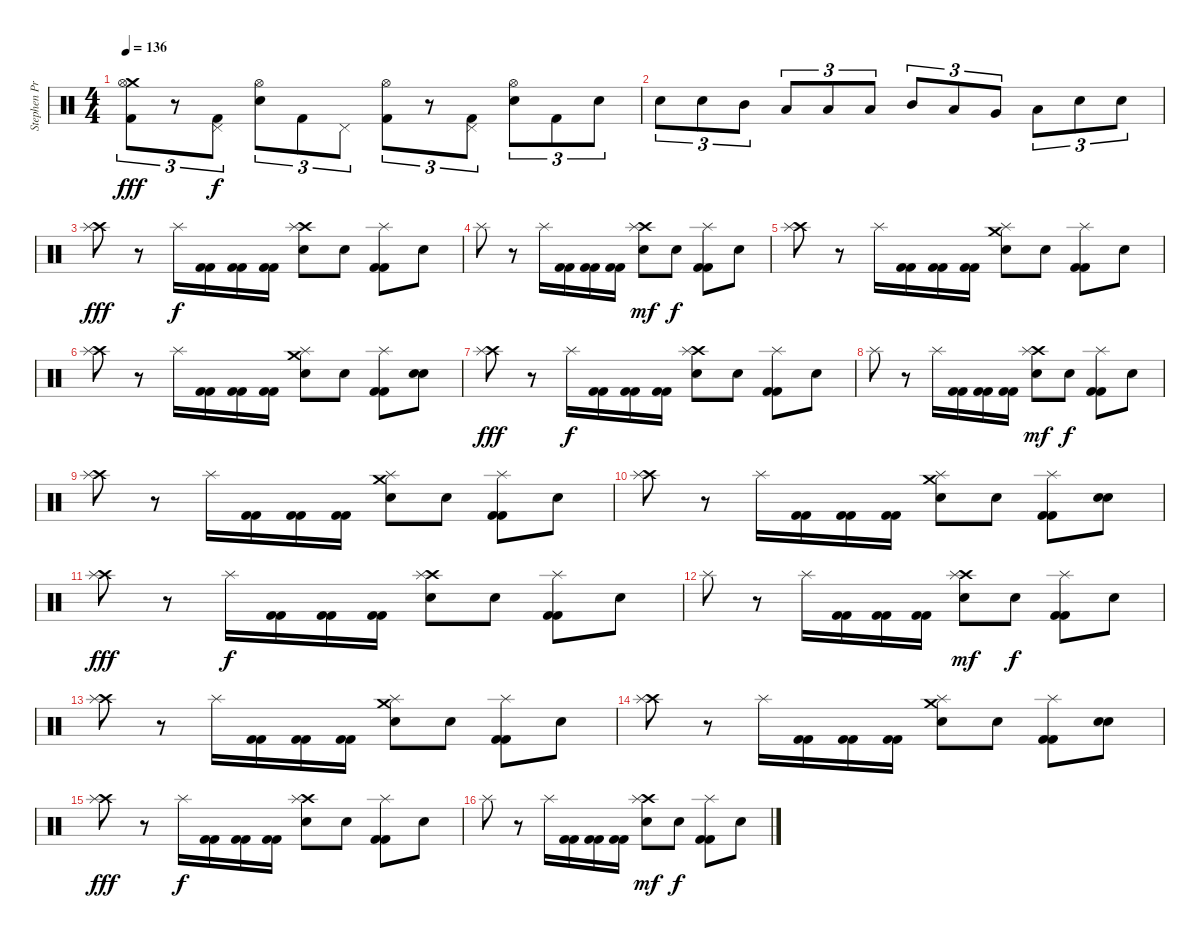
\track ("Stephen Priestly  (Drums)" "Stephen Pr") {instrument percussion}
\staff {score}
\articulation defaults
\ts (4 4)
\tempo 136
\clef neutral
\ks c
("Crash medium (hit)" "Hi-Hat (open)" "Kick (hit) 2").8{tu (3 2) dy fff} r.8{tu (3 2)} ("Pedal Hi-Hat (hit)" "Kick (hit) 2").8{tu (3 2) dy f} ("Hi-Hat (open)" "Electric Snare (hit)").8{tu (3 2)} "Kick (hit) 2".8{tu (3 2)} "Pedal Hi-Hat (hit)".8{tu (3 2)} ("Hi-Hat (open)" "Kick (hit) 2").8{tu (3 2)} r.8{tu (3 2)} ("Pedal Hi-Hat (hit)" "Kick (hit) 2").8{tu (3 2)} ("Hi-Hat (open)" "Electric Snare (hit)").8{tu (3 2)} "Kick (hit) 2".8{tu (3 2)} "Electric Snare (hit)".8{tu (3 2)} |
"Electric Snare (hit)".8{tu (3 2)} "Electric Snare (hit)".8{tu (3 2)} "Mid Tom (hit)".8{tu (3 2)} "Low Tom (hit)".8{tu (3 2)} "Low Tom (hit)".8{tu (3 2)} "Low Tom (hit)".8{tu (3 2)} "Mid Tom (hit)".8{tu (3 2)} "Low Tom (hit)".8{tu (3 2)} "Very Low Tom (hit)".8{tu (3 2)} "Low Floor Tom (hit)".8{tu (3 2)} "Electric Snare (hit)".8{tu (3 2)} "Electric Snare (hit)".8{tu (3 2)} |
("Crash high (hit)" "Splash (hit)").8{dy fff} r.8 "Splash (hit)".16{dy f} ("Kick (hit) 2" "Kick (hit) 2").16 ("Kick (hit) 2" "Kick (hit) 2").16 ("Kick (hit) 2" "Kick (hit) 2").16 ("Crash high (hit)" "Splash (hit)" "Electric Snare (hit)").8 "Snare (hit)".8 ("Splash (hit)" "Kick (hit) 2" "Kick (hit) 2").8 "Snare (hit)".8 |
"Splash (hit)".8 r.8 "Splash (hit)".16 ("Kick (hit) 2" "Kick (hit) 2").16 ("Kick (hit) 2" "Kick (hit) 2").16 ("Kick (hit) 2" "Kick (hit) 2").16 ("Crash high (hit)" "Splash (hit)" "Electric Snare (hit)").8{dy mf} "Snare (hit)".8{dy f} ("Splash (hit)" "Kick (hit) 2" "Kick (hit) 2").8 "Snare (hit)".8 |
("Crash high (hit)" "Splash (hit)").8 r.8 "Splash (hit)".16 ("Kick (hit) 2" "Kick (hit) 2").16 ("Kick (hit) 2" "Kick (hit) 2").16 ("Kick (hit) 2" "Kick (hit) 2").16 ("Crash medium (hit)" "Splash (hit)" "Electric Snare (hit)").8 "Snare (hit)".8 ("Splash (hit)" "Kick (hit) 2" "Kick (hit) 2").8 "Snare (hit)".8 |
("Crash high (hit)" "Splash (hit)").8 r.8 "Splash (hit)".16 ("Kick (hit) 2" "Kick (hit) 2").16 ("Kick (hit) 2" "Kick (hit) 2").16 ("Kick (hit) 2" "Kick (hit) 2").16 ("Crash medium (hit)" "Splash (hit)" "Electric Snare (hit)").8 "Snare (hit)".8 ("Splash (hit)" "Kick (hit) 2" "Kick (hit) 2").8 ("Snare (hit)" "Electric Snare (hit)").8 |
("Crash high (hit)" "Splash (hit)").8{dy fff} r.8 "Splash (hit)".16{dy f} ("Kick (hit) 2" "Kick (hit) 2").16 ("Kick (hit) 2" "Kick (hit) 2").16 ("Kick (hit) 2" "Kick (hit) 2").16 ("Crash high (hit)" "Splash (hit)" "Electric Snare (hit)").8 "Snare (hit)".8 ("Splash (hit)" "Kick (hit) 2" "Kick (hit) 2").8 "Snare (hit)".8 |
"Splash (hit)".8 r.8 "Splash (hit)".16 ("Kick (hit) 2" "Kick (hit) 2").16 ("Kick (hit) 2" "Kick (hit) 2").16 ("Kick (hit) 2" "Kick (hit) 2").16 ("Crash high (hit)" "Splash (hit)" "Electric Snare (hit)").8{dy mf} "Snare (hit)".8{dy f} ("Splash (hit)" "Kick (hit) 2" "Kick (hit) 2").8 "Snare (hit)".8 |
("Crash high (hit)" "Splash (hit)").8 r.8 "Splash (hit)".16 ("Kick (hit) 2" "Kick (hit) 2").16 ("Kick (hit) 2" "Kick (hit) 2").16 ("Kick (hit) 2" "Kick (hit) 2").16 ("Crash medium (hit)" "Splash (hit)" "Electric Snare (hit)").8 "Snare (hit)".8 ("Splash (hit)" "Kick (hit) 2" "Kick (hit) 2").8 "Snare (hit)".8 |
("Crash high (hit)" "Splash (hit)").8 r.8 "Splash (hit)".16 ("Kick (hit) 2" "Kick (hit) 2").16 ("Kick (hit) 2" "Kick (hit) 2").16 ("Kick (hit) 2" "Kick (hit) 2").16 ("Crash medium (hit)" "Splash (hit)" "Electric Snare (hit)").8 "Snare (hit)".8 ("Splash (hit)" "Kick (hit) 2" "Kick (hit) 2").8 ("Snare (hit)" "Electric Snare (hit)").8 |
("Crash high (hit)" "Splash (hit)").8{dy fff} r.8 "Splash (hit)".16{dy f} ("Kick (hit) 2" "Kick (hit) 2").16 ("Kick (hit) 2" "Kick (hit) 2").16 ("Kick (hit) 2" "Kick (hit) 2").16 ("Crash high (hit)" "Splash (hit)" "Electric Snare (hit)").8 "Snare (hit)".8 ("Splash (hit)" "Kick (hit) 2" "Kick (hit) 2").8 "Snare (hit)".8 |
"Splash (hit)".8 r.8 "Splash (hit)".16 ("Kick (hit) 2" "Kick (hit) 2").16 ("Kick (hit) 2" "Kick (hit) 2").16 ("Kick (hit) 2" "Kick (hit) 2").16 ("Crash high (hit)" "Splash (hit)" "Electric Snare (hit)").8{dy mf} "Snare (hit)".8{dy f} ("Splash (hit)" "Kick (hit) 2" "Kick (hit) 2").8 "Snare (hit)".8 |
("Crash high (hit)" "Splash (hit)").8 r.8 "Splash (hit)".16 ("Kick (hit) 2" "Kick (hit) 2").16 ("Kick (hit) 2" "Kick (hit) 2").16 ("Kick (hit) 2" "Kick (hit) 2").16 ("Crash medium (hit)" "Splash (hit)" "Electric Snare (hit)").8 "Snare (hit)".8 ("Splash (hit)" "Kick (hit) 2" "Kick (hit) 2").8 "Snare (hit)".8 |
("Crash high (hit)" "Splash (hit)").8 r.8 "Splash (hit)".16 ("Kick (hit) 2" "Kick (hit) 2").16 ("Kick (hit) 2" "Kick (hit) 2").16 ("Kick (hit) 2" "Kick (hit) 2").16 ("Crash medium (hit)" "Splash (hit)" "Electric Snare (hit)").8 "Snare (hit)".8 ("Splash (hit)" "Kick (hit) 2" "Kick (hit) 2").8 ("Snare (hit)" "Electric Snare (hit)").8 |
("Crash high (hit)" "Splash (hit)").8{dy fff} r.8 "Splash (hit)".16{dy f} ("Kick (hit) 2" "Kick (hit) 2").16 ("Kick (hit) 2" "Kick (hit) 2").16 ("Kick (hit) 2" "Kick (hit) 2").16 ("Crash high (hit)" "Splash (hit)" "Electric Snare (hit)").8 "Snare (hit)".8 ("Splash (hit)" "Kick (hit) 2" "Kick (hit) 2").8 "Snare (hit)".8 |
"Splash (hit)".8 r.8 "Splash (hit)".16 ("Kick (hit) 2" "Kick (hit) 2").16 ("Kick (hit) 2" "Kick (hit) 2").16 ("Kick (hit) 2" "Kick (hit) 2").16 ("Crash high (hit)" "Splash (hit)" "Electric Snare (hit)").8{dy mf} "Snare (hit)".8{dy f} ("Splash (hit)" "Kick (hit) 2" "Kick (hit) 2").8 "Snare (hit)".8
